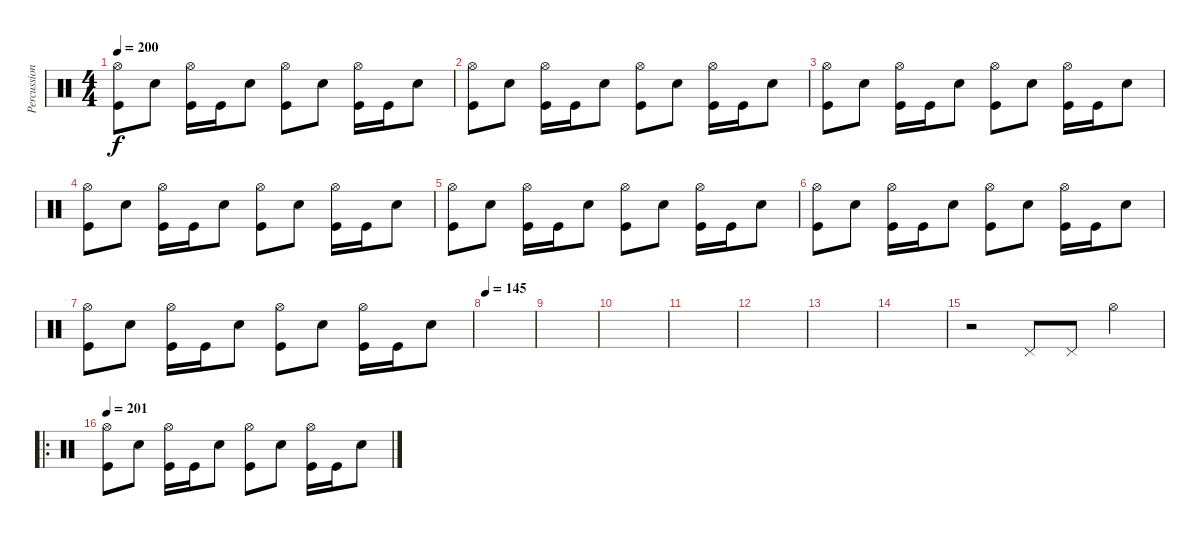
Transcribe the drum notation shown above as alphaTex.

\track ("Percussion" "Percussion") {instrument percussion}
\staff {score}
\articulation defaults
\ts (4 4)
\tempo 200
\clef neutral
\ks c
("Hi-Hat (open)" "Kick (hit)").8{dy f} "Electric Snare (hit)".8 ("Hi-Hat (open)" "Kick (hit)").16 "Kick (hit)".16 "Electric Snare (hit)".8 ("Hi-Hat (open)" "Kick (hit)").8 "Electric Snare (hit)".8 ("Hi-Hat (open)" "Kick (hit)").16 "Kick (hit)".16 "Electric Snare (hit)".8 |
("Hi-Hat (open)" "Kick (hit)").8 "Electric Snare (hit)".8 ("Hi-Hat (open)" "Kick (hit)").16 "Kick (hit)".16 "Electric Snare (hit)".8 ("Hi-Hat (open)" "Kick (hit)").8 "Electric Snare (hit)".8 ("Hi-Hat (open)" "Kick (hit)").16 "Kick (hit)".16 "Electric Snare (hit)".8 |
("Hi-Hat (open)" "Kick (hit)").8 "Electric Snare (hit)".8 ("Hi-Hat (open)" "Kick (hit)").16 "Kick (hit)".16 "Electric Snare (hit)".8 ("Hi-Hat (open)" "Kick (hit)").8 "Electric Snare (hit)".8 ("Hi-Hat (open)" "Kick (hit)").16 "Kick (hit)".16 "Electric Snare (hit)".8 |
("Hi-Hat (open)" "Kick (hit)").8 "Electric Snare (hit)".8 ("Hi-Hat (open)" "Kick (hit)").16 "Kick (hit)".16 "Electric Snare (hit)".8 ("Hi-Hat (open)" "Kick (hit)").8 "Electric Snare (hit)".8 ("Hi-Hat (open)" "Kick (hit)").16 "Kick (hit)".16 "Electric Snare (hit)".8 |
("Hi-Hat (open)" "Kick (hit)").8 "Electric Snare (hit)".8 ("Hi-Hat (open)" "Kick (hit)").16 "Kick (hit)".16 "Electric Snare (hit)".8 ("Hi-Hat (open)" "Kick (hit)").8 "Electric Snare (hit)".8 ("Hi-Hat (open)" "Kick (hit)").16 "Kick (hit)".16 "Electric Snare (hit)".8 |
("Hi-Hat (open)" "Kick (hit)").8 "Electric Snare (hit)".8 ("Hi-Hat (open)" "Kick (hit)").16 "Kick (hit)".16 "Electric Snare (hit)".8 ("Hi-Hat (open)" "Kick (hit)").8 "Electric Snare (hit)".8 ("Hi-Hat (open)" "Kick (hit)").16 "Kick (hit)".16 "Electric Snare (hit)".8 |
("Hi-Hat (open)" "Kick (hit)").8 "Electric Snare (hit)".8 ("Hi-Hat (open)" "Kick (hit)").16 "Kick (hit)".16 "Electric Snare (hit)".8 ("Hi-Hat (open)" "Kick (hit)").8 "Electric Snare (hit)".8 ("Hi-Hat (open)" "Kick (hit)").16 "Kick (hit)".16 "Electric Snare (hit)".8 |
\tempo 145
|
|
|
|
|
|
|
r.2 "Pedal Hi-Hat (hit)".8 "Pedal Hi-Hat (hit)".8 "Hi-Hat (open)".4 |
\ro
\tempo 201
("Hi-Hat (open)" "Kick (hit)").8 "Electric Snare (hit)".8 ("Hi-Hat (open)" "Kick (hit)").16 "Kick (hit)".16 "Electric Snare (hit)".8 ("Hi-Hat (open)" "Kick (hit)").8 "Electric Snare (hit)".8 ("Hi-Hat (open)" "Kick (hit)").16 "Kick (hit)".16 "Electric Snare (hit)".8
